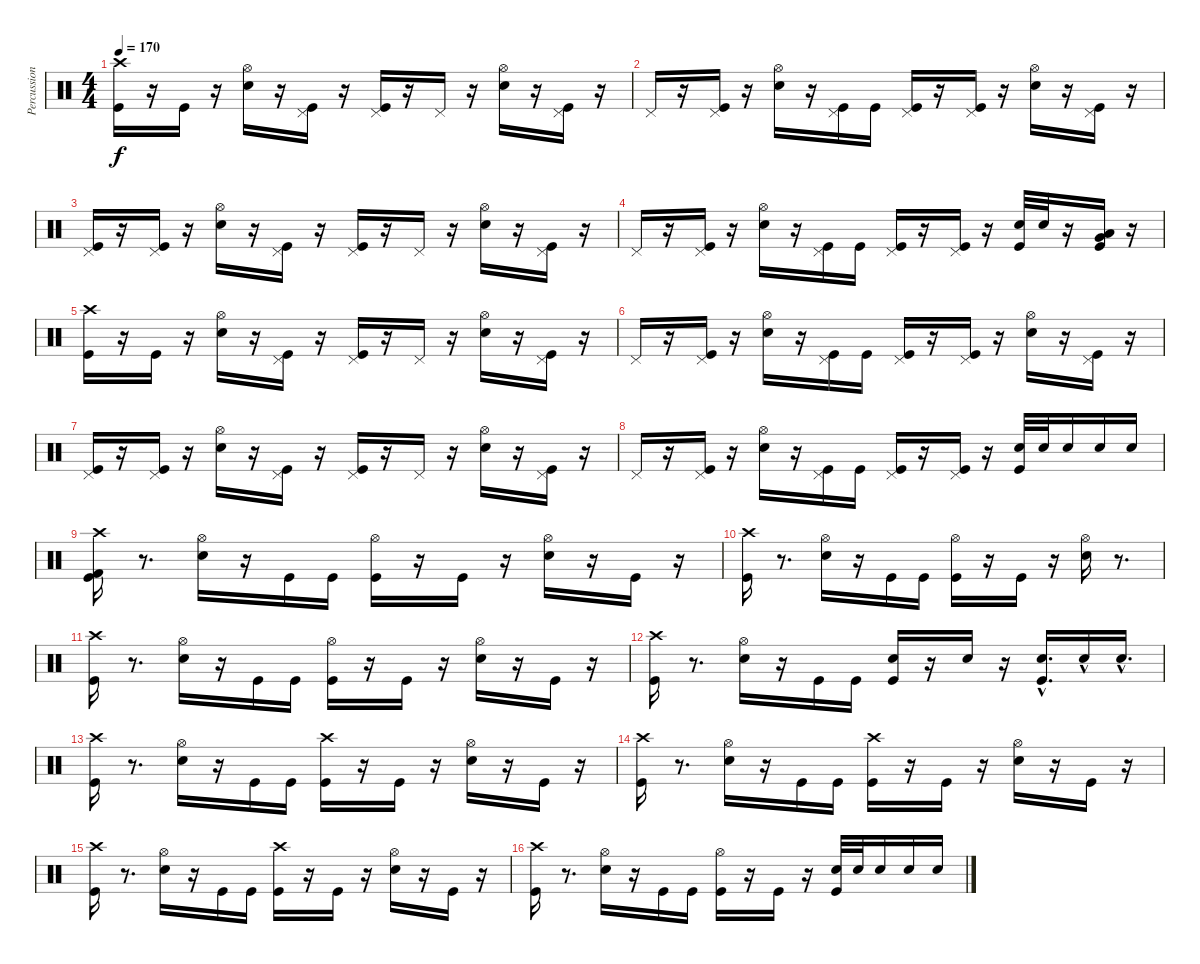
\track ("Percussion" "Percussion") {instrument percussion}
\staff {score}
\articulation defaults
\ts (4 4)
\tempo 170
\clef neutral
\ks c
("Crash high (hit)" "Kick (hit)").16{dy f} r.16 "Kick (hit)".16 r.16 ("Hi-Hat (open)" "Electric Snare (hit)").16 r.16 ("Pedal Hi-Hat (hit)" "Kick (hit)").16 r.16 ("Pedal Hi-Hat (hit)" "Kick (hit)").16 r.16 "Pedal Hi-Hat (hit)".16 r.16 ("Hi-Hat (open)" "Electric Snare (hit)").16 r.16 ("Pedal Hi-Hat (hit)" "Kick (hit)").16 r.16 |
"Pedal Hi-Hat (hit)".16 r.16 ("Pedal Hi-Hat (hit)" "Kick (hit)").16 r.16 ("Hi-Hat (open)" "Electric Snare (hit)").16 r.16 ("Pedal Hi-Hat (hit)" "Kick (hit)").16 "Kick (hit)".16 ("Pedal Hi-Hat (hit)" "Kick (hit)").16 r.16 ("Pedal Hi-Hat (hit)" "Kick (hit)").16 r.16 ("Hi-Hat (open)" "Electric Snare (hit)").16 r.16 ("Pedal Hi-Hat (hit)" "Kick (hit)").16 r.16 |
("Pedal Hi-Hat (hit)" "Kick (hit)").16 r.16 ("Pedal Hi-Hat (hit)" "Kick (hit)").16 r.16 ("Hi-Hat (open)" "Electric Snare (hit)").16 r.16 ("Pedal Hi-Hat (hit)" "Kick (hit)").16 r.16 ("Pedal Hi-Hat (hit)" "Kick (hit)").16 r.16 "Pedal Hi-Hat (hit)".16 r.16 ("Hi-Hat (open)" "Electric Snare (hit)").16 r.16 ("Pedal Hi-Hat (hit)" "Kick (hit)").16 r.16 |
"Pedal Hi-Hat (hit)".16 r.16 ("Pedal Hi-Hat (hit)" "Kick (hit)").16 r.16 ("Hi-Hat (open)" "Electric Snare (hit)").16 r.16 ("Pedal Hi-Hat (hit)" "Kick (hit)").16 "Kick (hit)".16 ("Pedal Hi-Hat (hit)" "Kick (hit)").16 r.16 ("Pedal Hi-Hat (hit)" "Kick (hit)").16 r.16 ("Kick (hit)" "Electric Snare (hit)").32 "Electric Snare (hit)".32 r.16 ("Kick (hit)" "Very Low Tom (hit)" "Low Floor Tom (hit)").16 r.16 |
("Kick (hit)" "Crash high (hit)").16 r.16 "Kick (hit)".16 r.16 ("Hi-Hat (open)" "Electric Snare (hit)").16 r.16 ("Pedal Hi-Hat (hit)" "Kick (hit)").16 r.16 ("Pedal Hi-Hat (hit)" "Kick (hit)").16 r.16 "Pedal Hi-Hat (hit)".16 r.16 ("Hi-Hat (open)" "Electric Snare (hit)").16 r.16 ("Pedal Hi-Hat (hit)" "Kick (hit)").16 r.16 |
"Pedal Hi-Hat (hit)".16 r.16 ("Pedal Hi-Hat (hit)" "Kick (hit)").16 r.16 ("Hi-Hat (open)" "Electric Snare (hit)").16 r.16 ("Pedal Hi-Hat (hit)" "Kick (hit)").16 "Kick (hit)".16 ("Pedal Hi-Hat (hit)" "Kick (hit)").16 r.16 ("Pedal Hi-Hat (hit)" "Kick (hit)").16 r.16 ("Hi-Hat (open)" "Electric Snare (hit)").16 r.16 ("Pedal Hi-Hat (hit)" "Kick (hit)").16 r.16 |
("Pedal Hi-Hat (hit)" "Kick (hit)").16 r.16 ("Pedal Hi-Hat (hit)" "Kick (hit)").16 r.16 ("Hi-Hat (open)" "Electric Snare (hit)").16 r.16 ("Pedal Hi-Hat (hit)" "Kick (hit)").16 r.16 ("Pedal Hi-Hat (hit)" "Kick (hit)").16 r.16 "Pedal Hi-Hat (hit)".16 r.16 ("Hi-Hat (open)" "Electric Snare (hit)").16 r.16 ("Pedal Hi-Hat (hit)" "Kick (hit)").16 r.16 |
"Pedal Hi-Hat (hit)".16 r.16 ("Pedal Hi-Hat (hit)" "Kick (hit)").16 r.16 ("Hi-Hat (open)" "Electric Snare (hit)").16 r.16 ("Pedal Hi-Hat (hit)" "Kick (hit)").16 "Kick (hit)".16 ("Pedal Hi-Hat (hit)" "Kick (hit)").16 r.16 ("Pedal Hi-Hat (hit)" "Kick (hit)").16 r.16 ("Kick (hit)" "Electric Snare (hit)").32 "Electric Snare (hit)".32 "Electric Snare (hit)".16 "Electric Snare (hit)".16 "Electric Snare (hit)".16 |
("Kick (hit) 2" "Crash high (hit)" "Kick (hit)").16 r.8{d} ("Hi-Hat (open)" "Electric Snare (hit)").16 r.16 "Kick (hit)".16 "Kick (hit)".16 ("Hi-Hat (open)" "Kick (hit)").16 r.16 "Kick (hit)".16 r.16 ("Hi-Hat (open)" "Electric Snare (hit)").16 r.16 "Kick (hit)".16 r.16 |
("Crash high (hit)" "Kick (hit)").16 r.8{d} ("Hi-Hat (open)" "Electric Snare (hit)").16 r.16 "Kick (hit)".16 "Kick (hit)".16 ("Hi-Hat (open)" "Kick (hit)").16 r.16 "Kick (hit)".16 r.16 ("Hi-Hat (open)" "Electric Snare (hit)").16 r.8{d} |
("Crash high (hit)" "Kick (hit)").16 r.8{d} ("Hi-Hat (open)" "Electric Snare (hit)").16 r.16 "Kick (hit)".16 "Kick (hit)".16 ("Hi-Hat (open)" "Kick (hit)").16 r.16 "Kick (hit)".16 r.16 ("Hi-Hat (open)" "Electric Snare (hit)").16 r.16 "Kick (hit)".16 r.16 |
("Crash high (hit)" "Kick (hit)").16 r.8{d} ("Hi-Hat (open)" "Electric Snare (hit)").16 r.16 "Kick (hit)".16 "Kick (hit)".16 ("Kick (hit)" "Electric Snare (hit)").16 r.16 "Electric Snare (hit)".16 r.16 ("Kick (hit)" "Electric Snare (hit)"{hac}).16{d} "Electric Snare (hit)"{hac}.16 "Electric Snare (hit)"{hac}.16{d} |
("Crash high (hit)" "Kick (hit)").16 r.8{d} ("Hi-Hat (open)" "Electric Snare (hit)").16 r.16 "Kick (hit)".16 "Kick (hit)".16 ("Crash high (hit)" "Kick (hit)").16 r.16 "Kick (hit)".16 r.16 ("Hi-Hat (open)" "Electric Snare (hit)").16 r.16 "Kick (hit)".16 r.16 |
("Crash high (hit)" "Kick (hit)").16 r.8{d} ("Hi-Hat (open)" "Electric Snare (hit)").16 r.16 "Kick (hit)".16 "Kick (hit)".16 ("Crash high (hit)" "Kick (hit)").16 r.16 "Kick (hit)".16 r.16 ("Hi-Hat (open)" "Electric Snare (hit)").16 r.16 "Kick (hit)".16 r.16 |
("Crash high (hit)" "Kick (hit)").16 r.8{d} ("Hi-Hat (open)" "Electric Snare (hit)").16 r.16 "Kick (hit)".16 "Kick (hit)".16 ("Crash high (hit)" "Kick (hit)").16 r.16 "Kick (hit)".16 r.16 ("Hi-Hat (open)" "Electric Snare (hit)").16 r.16 "Kick (hit)".16 r.16 |
("Crash high (hit)" "Kick (hit)").16 r.8{d} ("Hi-Hat (open)" "Electric Snare (hit)").16 r.16 "Kick (hit)".16 "Kick (hit)".16 ("Hi-Hat (open)" "Kick (hit)").16 r.16 "Kick (hit)".16 r.16 ("Kick (hit)" "Electric Snare (hit)").32 "Electric Snare (hit)".32 "Electric Snare (hit)".16 "Electric Snare (hit)".16 "Electric Snare (hit)".16
